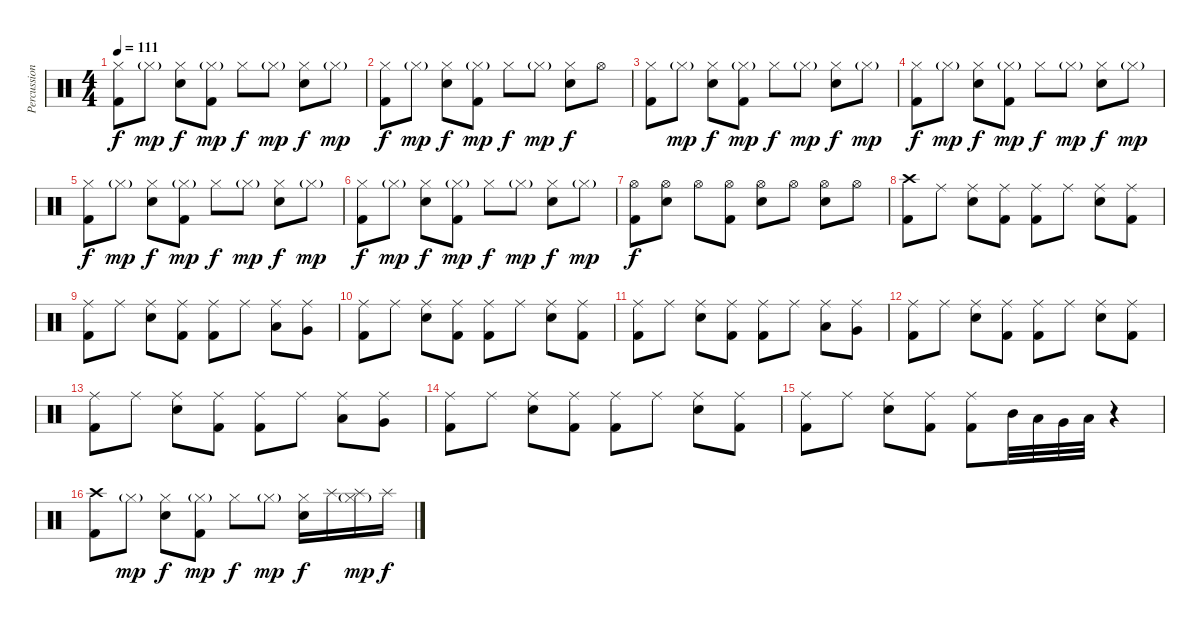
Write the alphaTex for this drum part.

\track ("Percussion" "Percussion") {instrument percussion}
\staff {score}
\articulation defaults
\ts (4 4)
\tempo 111
\clef neutral
\ks c
("Hi-Hat (closed)" "Kick (hit) 2").8{dy f} "Hi-Hat (closed)"{g}.8{dy mp} ("Hi-Hat (closed)" "Electric Snare (hit)").8{dy f} ("Hi-Hat (closed)"{g} "Kick (hit) 2").8{dy mp} "Hi-Hat (closed)".8{dy f} "Hi-Hat (closed)"{g}.8{dy mp} ("Hi-Hat (closed)" "Electric Snare (hit)").8{dy f} "Hi-Hat (closed)"{g}.8{dy mp} |
("Hi-Hat (closed)" "Kick (hit) 2").8{dy f} "Hi-Hat (closed)"{g}.8{dy mp} ("Hi-Hat (closed)" "Electric Snare (hit)").8{dy f} ("Hi-Hat (closed)"{g} "Kick (hit) 2").8{dy mp} "Hi-Hat (closed)".8{dy f} "Hi-Hat (closed)"{g}.8{dy mp} ("Hi-Hat (closed)" "Electric Snare (hit)").8{dy f} "Hi-Hat (open)".8 |
("Hi-Hat (closed)" "Kick (hit) 2").8 "Hi-Hat (closed)"{g}.8{dy mp} ("Hi-Hat (closed)" "Electric Snare (hit)").8{dy f} ("Hi-Hat (closed)"{g} "Kick (hit) 2").8{dy mp} "Hi-Hat (closed)".8{dy f} "Hi-Hat (closed)"{g}.8{dy mp} ("Hi-Hat (closed)" "Electric Snare (hit)").8{dy f} "Hi-Hat (closed)"{g}.8{dy mp} |
("Hi-Hat (closed)" "Kick (hit) 2").8{dy f} "Hi-Hat (closed)"{g}.8{dy mp} ("Hi-Hat (closed)" "Electric Snare (hit)").8{dy f} ("Hi-Hat (closed)"{g} "Kick (hit) 2").8{dy mp} "Hi-Hat (closed)".8{dy f} "Hi-Hat (closed)"{g}.8{dy mp} ("Hi-Hat (closed)" "Electric Snare (hit)").8{dy f} "Hi-Hat (closed)"{g}.8{dy mp} |
("Hi-Hat (closed)" "Kick (hit) 2").8{dy f} "Hi-Hat (closed)"{g}.8{dy mp} ("Hi-Hat (closed)" "Electric Snare (hit)").8{dy f} ("Hi-Hat (closed)"{g} "Kick (hit) 2").8{dy mp} "Hi-Hat (closed)".8{dy f} "Hi-Hat (closed)"{g}.8{dy mp} ("Hi-Hat (closed)" "Electric Snare (hit)").8{dy f} "Hi-Hat (closed)"{g}.8{dy mp} |
("Hi-Hat (closed)" "Kick (hit) 2").8{dy f} "Hi-Hat (closed)"{g}.8{dy mp} ("Hi-Hat (closed)" "Electric Snare (hit)").8{dy f} ("Hi-Hat (closed)"{g} "Kick (hit) 2").8{dy mp} "Hi-Hat (closed)".8{dy f} "Hi-Hat (closed)"{g}.8{dy mp} ("Hi-Hat (closed)" "Electric Snare (hit)").8{dy f} "Hi-Hat (closed)"{g}.8{dy mp} |
("Hi-Hat (open)" "Kick (hit) 2").8{dy f} ("Hi-Hat (open)" "Electric Snare (hit)").8 "Hi-Hat (open)".8 ("Hi-Hat (open)" "Kick (hit) 2").8 ("Hi-Hat (open)" "Electric Snare (hit)").8 "Hi-Hat (open)".8 ("Hi-Hat (open)" "Electric Snare (hit)").8 "Hi-Hat (open)".8 |
("Crash high (hit)" "Kick (hit) 2").8 "Ride (middle)".8 ("Ride (middle)" "Electric Snare (hit)").8 ("Ride (middle)" "Kick (hit) 2").8 ("Ride (middle)" "Kick (hit) 2").8 "Ride (middle)".8 ("Ride (middle)" "Electric Snare (hit)").8 ("Ride (middle)" "Kick (hit) 2").8 |
("Ride (middle)" "Kick (hit) 2").8 "Ride (middle)".8 ("Ride (middle)" "Electric Snare (hit)").8 ("Ride (middle)" "Kick (hit) 2").8 ("Ride (middle)" "Kick (hit) 2").8 "Ride (middle)".8 ("Ride (middle)" "Low Tom (hit)").8 ("Ride (middle)" "Very Low Tom (hit)").8 |
("Ride (middle)" "Kick (hit) 2").8 "Ride (middle)".8 ("Ride (middle)" "Electric Snare (hit)").8 ("Ride (middle)" "Kick (hit) 2").8 ("Ride (middle)" "Kick (hit) 2").8 "Ride (middle)".8 ("Ride (middle)" "Electric Snare (hit)").8 ("Ride (middle)" "Kick (hit) 2").8 |
("Ride (middle)" "Kick (hit) 2").8 "Ride (middle)".8 ("Ride (middle)" "Electric Snare (hit)").8 ("Ride (middle)" "Kick (hit) 2").8 ("Ride (middle)" "Kick (hit) 2").8 "Ride (middle)".8 ("Ride (middle)" "Low Tom (hit)").8 ("Ride (middle)" "Very Low Tom (hit)").8 |
("Ride (middle)" "Kick (hit) 2").8 "Ride (middle)".8 ("Ride (middle)" "Electric Snare (hit)").8 ("Ride (middle)" "Kick (hit) 2").8 ("Ride (middle)" "Kick (hit) 2").8 "Ride (middle)".8 ("Ride (middle)" "Electric Snare (hit)").8 ("Ride (middle)" "Kick (hit) 2").8 |
("Ride (middle)" "Kick (hit) 2").8 "Ride (middle)".8 ("Ride (middle)" "Electric Snare (hit)").8 ("Ride (middle)" "Kick (hit) 2").8 ("Ride (middle)" "Kick (hit) 2").8 "Ride (middle)".8 ("Ride (middle)" "Low Tom (hit)").8 ("Ride (middle)" "Very Low Tom (hit)").8 |
("Ride (middle)" "Kick (hit) 2").8 "Ride (middle)".8 ("Ride (middle)" "Electric Snare (hit)").8 ("Ride (middle)" "Kick (hit) 2").8 ("Ride (middle)" "Kick (hit) 2").8 "Ride (middle)".8 ("Ride (middle)" "Electric Snare (hit)").8 ("Ride (middle)" "Kick (hit) 2").8 |
("Ride (middle)" "Kick (hit) 2").8 "Ride (middle)".8 ("Ride (middle)" "Electric Snare (hit)").8 ("Ride (middle)" "Kick (hit) 2").8 ("Ride (middle)" "Kick (hit) 2").8 "Mid Tom (hit)".32 "Low Tom (hit)".32 "Very Low Tom (hit)".32 "Low Floor Tom (hit)".32 r.4 |
("Crash high (hit)" "Kick (hit) 2").8 "Hi-Hat (closed)"{g}.8{dy mp} ("Hi-Hat (closed)" "Electric Snare (hit)").8{dy f} ("Hi-Hat (closed)"{g} "Kick (hit) 2").8{dy mp} "Hi-Hat (closed)".8{dy f} "Hi-Hat (closed)"{g}.8{dy mp} ("Hi-Hat (closed)" "Electric Snare (hit)").16{dy f} "Splash (hit)".16 ("Splash (hit)" "Hi-Hat (closed)"{g}).16{dy mp} "Splash (hit)".16{dy f}
